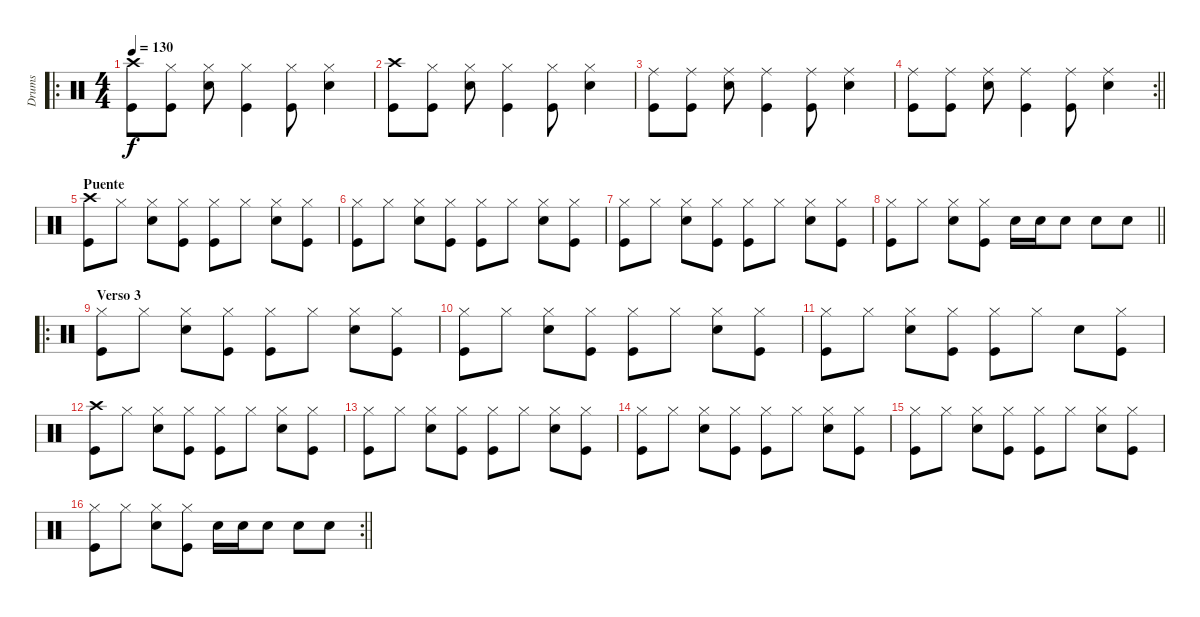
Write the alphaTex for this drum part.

\track ("Drums" "Drums") {instrument percussion}
\staff {score}
\articulation defaults
\ro
\ts (4 4)
\tempo 130
\clef neutral
\ks c
("Kick (hit)" "Crash high (hit)").8{dy f} ("Kick (hit)" "Hi-Hat (closed)").8 ("Snare (hit) 2" "Hi-Hat (closed)").8 ("Kick (hit)" "Hi-Hat (closed)").4 ("Kick (hit)" "Hi-Hat (closed)").8 ("Snare (hit) 2" "Hi-Hat (closed)").4 |
("Kick (hit)" "Crash high (hit)").8 ("Kick (hit)" "Hi-Hat (closed)").8 ("Snare (hit) 2" "Hi-Hat (closed)").8 ("Kick (hit)" "Hi-Hat (closed)").4 ("Kick (hit)" "Hi-Hat (closed)").8 ("Snare (hit) 2" "Hi-Hat (closed)").4 |
("Kick (hit)" "Ride (middle)").8 ("Kick (hit)" "Ride (middle)").8 ("Snare (hit) 2" "Ride (middle)").8 ("Kick (hit)" "Ride (middle)").4 ("Kick (hit)" "Ride (middle)").8 ("Snare (hit) 2" "Ride (middle)").4 |
\rc 2
\barLineRight lightlight
("Kick (hit)" "Ride (middle)").8 ("Kick (hit)" "Ride (middle)").8 ("Snare (hit) 2" "Ride (middle)").8 ("Kick (hit)" "Ride (middle)").4 ("Kick (hit)" "Ride (middle)").8 ("Snare (hit) 2" "Ride (middle)").4 |
\section ("" "Puente")
("Kick (hit)" "Crash high (hit)").8 "Hi-Hat (closed)".8 ("Snare (hit) 2" "Hi-Hat (closed)").8 ("Kick (hit)" "Hi-Hat (closed)").8 ("Kick (hit)" "Hi-Hat (closed)").8 "Hi-Hat (closed)".8 ("Snare (hit) 2" "Hi-Hat (closed)").8 ("Kick (hit)" "Hi-Hat (closed)").8 |
("Kick (hit)" "Hi-Hat (closed)").8 "Hi-Hat (closed)".8 ("Snare (hit) 2" "Hi-Hat (closed)").8 ("Kick (hit)" "Hi-Hat (closed)").8 ("Kick (hit)" "Hi-Hat (closed)").8 "Hi-Hat (closed)".8 ("Snare (hit) 2" "Hi-Hat (closed)").8 ("Kick (hit)" "Hi-Hat (closed)").8 |
("Kick (hit)" "Hi-Hat (closed)").8 "Hi-Hat (closed)".8 ("Snare (hit) 2" "Hi-Hat (closed)").8 ("Kick (hit)" "Hi-Hat (closed)").8 ("Kick (hit)" "Hi-Hat (closed)").8 "Hi-Hat (closed)".8 ("Snare (hit) 2" "Hi-Hat (closed)").8 ("Kick (hit)" "Hi-Hat (closed)").8 |
\barLineRight lightlight
("Kick (hit)" "Hi-Hat (closed)").8 "Hi-Hat (closed)".8 ("Snare (hit) 2" "Hi-Hat (closed)").8 ("Kick (hit)" "Hi-Hat (closed)").8 "Snare (hit) 2".16 "Snare (hit) 2".16 "Snare (hit) 2".8 "Snare (hit) 2".8 "Snare (hit) 2".8 |
\ro
\section ("" "Verso 3")
("Kick (hit)" "Hi-Hat (closed)").8 "Hi-Hat (closed)".8 ("Snare (hit) 2" "Hi-Hat (closed)").8 ("Kick (hit)" "Hi-Hat (closed)").8 ("Kick (hit)" "Hi-Hat (closed)").8 "Hi-Hat (closed)".8 ("Snare (hit) 2" "Hi-Hat (closed)").8 ("Kick (hit)" "Hi-Hat (closed)").8 |
("Kick (hit)" "Hi-Hat (closed)").8 "Hi-Hat (closed)".8 ("Snare (hit) 2" "Hi-Hat (closed)").8 ("Kick (hit)" "Hi-Hat (closed)").8 ("Kick (hit)" "Hi-Hat (closed)").8 "Hi-Hat (closed)".8 ("Snare (hit) 2" "Hi-Hat (closed)").8 ("Kick (hit)" "Hi-Hat (closed)").8 |
("Kick (hit)" "Hi-Hat (closed)").8 "Hi-Hat (closed)".8 ("Snare (hit) 2" "Hi-Hat (closed)").8 ("Kick (hit)" "Hi-Hat (closed)").8 ("Kick (hit)" "Hi-Hat (closed)").8 "Hi-Hat (closed)".8 "Snare (hit) 2".8 ("Kick (hit)" "Hi-Hat (closed)").8 |
("Kick (hit)" "Crash high (hit)").8 "Hi-Hat (closed)".8 ("Snare (hit) 2" "Hi-Hat (closed)").8 ("Kick (hit)" "Hi-Hat (closed)").8 ("Kick (hit)" "Hi-Hat (closed)").8 "Hi-Hat (closed)".8 ("Snare (hit) 2" "Hi-Hat (closed)").8 ("Kick (hit)" "Hi-Hat (closed)").8 |
("Kick (hit)" "Hi-Hat (closed)").8 "Hi-Hat (closed)".8 ("Snare (hit) 2" "Hi-Hat (closed)").8 ("Kick (hit)" "Hi-Hat (closed)").8 ("Kick (hit)" "Hi-Hat (closed)").8 "Hi-Hat (closed)".8 ("Snare (hit) 2" "Hi-Hat (closed)").8 ("Kick (hit)" "Hi-Hat (closed)").8 |
("Kick (hit)" "Hi-Hat (closed)").8 "Hi-Hat (closed)".8 ("Snare (hit) 2" "Hi-Hat (closed)").8 ("Kick (hit)" "Hi-Hat (closed)").8 ("Kick (hit)" "Hi-Hat (closed)").8 "Hi-Hat (closed)".8 ("Snare (hit) 2" "Hi-Hat (closed)").8 ("Kick (hit)" "Hi-Hat (closed)").8 |
("Kick (hit)" "Hi-Hat (closed)").8 "Hi-Hat (closed)".8 ("Snare (hit) 2" "Hi-Hat (closed)").8 ("Kick (hit)" "Hi-Hat (closed)").8 ("Kick (hit)" "Hi-Hat (closed)").8 "Hi-Hat (closed)".8 ("Snare (hit) 2" "Hi-Hat (closed)").8 ("Kick (hit)" "Hi-Hat (closed)").8 |
\rc 2
\barLineRight lightlight
("Kick (hit)" "Hi-Hat (closed)").8 "Hi-Hat (closed)".8 ("Snare (hit) 2" "Hi-Hat (closed)").8 ("Kick (hit)" "Hi-Hat (closed)").8 "Snare (hit) 2".16 "Snare (hit) 2".16 "Snare (hit) 2".8 "Snare (hit) 2".8 "Snare (hit) 2".8
